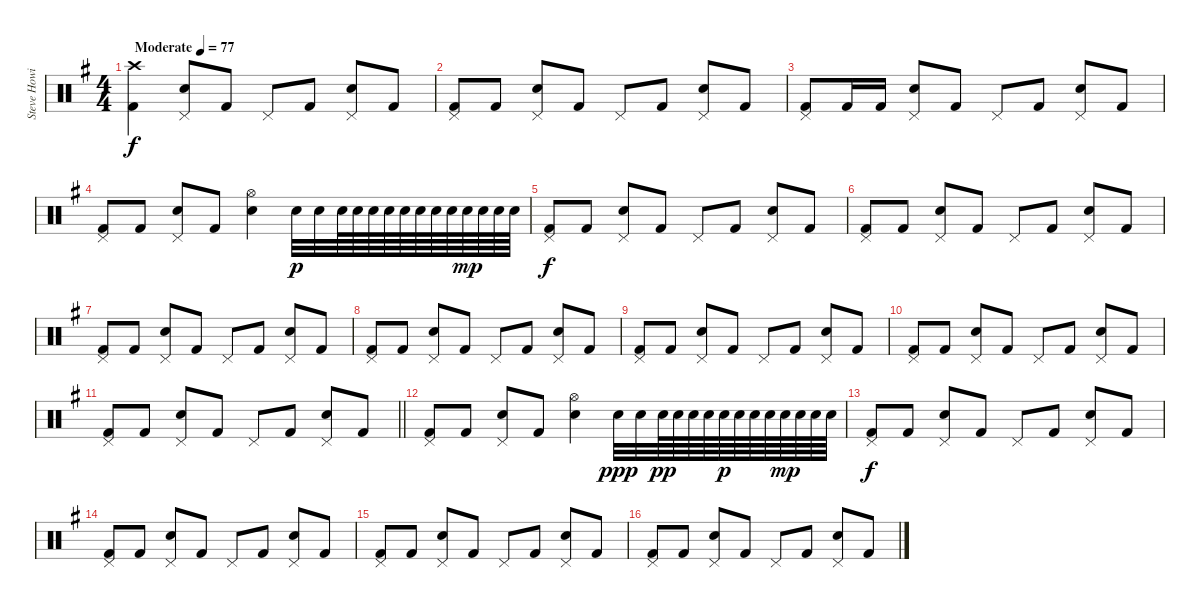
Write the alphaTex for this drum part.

\track ("Steve Howie" "Steve Howi") {instrument percussion}
\staff {score}
\articulation defaults
\ts (4 4)
\tempo (77 "Moderate")
\clef neutral
\ks g
("Crash high (hit)" "Kick (hit) 2").4{dy f} ("Pedal Hi-Hat (hit)" "Electric Snare (hit)").8 "Kick (hit) 2".8 "Pedal Hi-Hat (hit)".8 "Kick (hit) 2".8 ("Pedal Hi-Hat (hit)" "Electric Snare (hit)").8 "Kick (hit) 2".8 |
("Pedal Hi-Hat (hit)" "Kick (hit) 2").8 "Kick (hit) 2".8 ("Pedal Hi-Hat (hit)" "Electric Snare (hit)").8 "Kick (hit) 2".8 "Pedal Hi-Hat (hit)".8 "Kick (hit) 2".8 ("Pedal Hi-Hat (hit)" "Electric Snare (hit)").8 "Kick (hit) 2".8 |
("Pedal Hi-Hat (hit)" "Kick (hit) 2").8 "Kick (hit) 2".16 "Kick (hit) 2".16 ("Pedal Hi-Hat (hit)" "Electric Snare (hit)").8 "Kick (hit) 2".8 "Pedal Hi-Hat (hit)".8 "Kick (hit) 2".8 ("Pedal Hi-Hat (hit)" "Electric Snare (hit)").8 "Kick (hit) 2".8 |
("Pedal Hi-Hat (hit)" "Kick (hit) 2").8 "Kick (hit) 2".8 ("Pedal Hi-Hat (hit)" "Electric Snare (hit)").8 "Kick (hit) 2".8 ("Hi-Hat (open)" "Electric Snare (hit)").4 "Electric Snare (hit)".32{dy p} "Electric Snare (hit)".32 "Electric Snare (hit)".64 "Electric Snare (hit)".64 "Electric Snare (hit)".64 "Electric Snare (hit)".64 "Electric Snare (hit)".64 "Electric Snare (hit)".64 "Electric Snare (hit)".64 "Electric Snare (hit)".64 "Electric Snare (hit)".64{dy mp} "Electric Snare (hit)".64 "Electric Snare (hit)".64 "Electric Snare (hit)".64 |
("Pedal Hi-Hat (hit)" "Kick (hit) 2").8{dy f} "Kick (hit) 2".8 ("Pedal Hi-Hat (hit)" "Electric Snare (hit)").8 "Kick (hit) 2".8 "Pedal Hi-Hat (hit)".8 "Kick (hit) 2".8 ("Pedal Hi-Hat (hit)" "Electric Snare (hit)").8 "Kick (hit) 2".8 |
("Pedal Hi-Hat (hit)" "Kick (hit) 2").8 "Kick (hit) 2".8 ("Pedal Hi-Hat (hit)" "Electric Snare (hit)").8 "Kick (hit) 2".8 "Pedal Hi-Hat (hit)".8 "Kick (hit) 2".8 ("Pedal Hi-Hat (hit)" "Electric Snare (hit)").8 "Kick (hit) 2".8 |
("Pedal Hi-Hat (hit)" "Kick (hit) 2").8 "Kick (hit) 2".8 ("Pedal Hi-Hat (hit)" "Electric Snare (hit)").8 "Kick (hit) 2".8 "Pedal Hi-Hat (hit)".8 "Kick (hit) 2".8 ("Pedal Hi-Hat (hit)" "Electric Snare (hit)").8 "Kick (hit) 2".8 |
("Pedal Hi-Hat (hit)" "Kick (hit) 2").8 "Kick (hit) 2".8 ("Pedal Hi-Hat (hit)" "Electric Snare (hit)").8 "Kick (hit) 2".8 "Pedal Hi-Hat (hit)".8 "Kick (hit) 2".8 ("Pedal Hi-Hat (hit)" "Electric Snare (hit)").8 "Kick (hit) 2".8 |
("Pedal Hi-Hat (hit)" "Kick (hit) 2").8 "Kick (hit) 2".8 ("Pedal Hi-Hat (hit)" "Electric Snare (hit)").8 "Kick (hit) 2".8 "Pedal Hi-Hat (hit)".8 "Kick (hit) 2".8 ("Pedal Hi-Hat (hit)" "Electric Snare (hit)").8 "Kick (hit) 2".8 |
("Pedal Hi-Hat (hit)" "Kick (hit) 2").8 "Kick (hit) 2".8 ("Pedal Hi-Hat (hit)" "Electric Snare (hit)").8 "Kick (hit) 2".8 "Pedal Hi-Hat (hit)".8 "Kick (hit) 2".8 ("Pedal Hi-Hat (hit)" "Electric Snare (hit)").8 "Kick (hit) 2".8 |
\barLineRight lightlight
("Pedal Hi-Hat (hit)" "Kick (hit) 2").8 "Kick (hit) 2".8 ("Pedal Hi-Hat (hit)" "Electric Snare (hit)").8 "Kick (hit) 2".8 "Pedal Hi-Hat (hit)".8 "Kick (hit) 2".8 ("Pedal Hi-Hat (hit)" "Electric Snare (hit)").8 "Kick (hit) 2".8 |
("Pedal Hi-Hat (hit)" "Kick (hit) 2").8 "Kick (hit) 2".8 ("Pedal Hi-Hat (hit)" "Electric Snare (hit)").8 "Kick (hit) 2".8 ("Hi-Hat (open)" "Electric Snare (hit)").4 "Electric Snare (hit)".32{dy ppp} "Electric Snare (hit)".32 "Electric Snare (hit)".64{dy pp} "Electric Snare (hit)".64 "Electric Snare (hit)".64 "Electric Snare (hit)".64 "Electric Snare (hit)".64{dy p} "Electric Snare (hit)".64 "Electric Snare (hit)".64 "Electric Snare (hit)".64 "Electric Snare (hit)".64{dy mp} "Electric Snare (hit)".64 "Electric Snare (hit)".64 "Electric Snare (hit)".64 |
("Pedal Hi-Hat (hit)" "Kick (hit) 2").8{dy f} "Kick (hit) 2".8 ("Pedal Hi-Hat (hit)" "Electric Snare (hit)").8 "Kick (hit) 2".8 "Pedal Hi-Hat (hit)".8 "Kick (hit) 2".8 ("Pedal Hi-Hat (hit)" "Electric Snare (hit)").8 "Kick (hit) 2".8 |
("Pedal Hi-Hat (hit)" "Kick (hit) 2").8 "Kick (hit) 2".8 ("Pedal Hi-Hat (hit)" "Electric Snare (hit)").8 "Kick (hit) 2".8 "Pedal Hi-Hat (hit)".8 "Kick (hit) 2".8 ("Pedal Hi-Hat (hit)" "Electric Snare (hit)").8 "Kick (hit) 2".8 |
("Pedal Hi-Hat (hit)" "Kick (hit) 2").8 "Kick (hit) 2".8 ("Pedal Hi-Hat (hit)" "Electric Snare (hit)").8 "Kick (hit) 2".8 "Pedal Hi-Hat (hit)".8 "Kick (hit) 2".8 ("Pedal Hi-Hat (hit)" "Electric Snare (hit)").8 "Kick (hit) 2".8 |
("Pedal Hi-Hat (hit)" "Kick (hit) 2").8 "Kick (hit) 2".8 ("Pedal Hi-Hat (hit)" "Electric Snare (hit)").8 "Kick (hit) 2".8 "Pedal Hi-Hat (hit)".8 "Kick (hit) 2".8 ("Pedal Hi-Hat (hit)" "Electric Snare (hit)").8 "Kick (hit) 2".8
